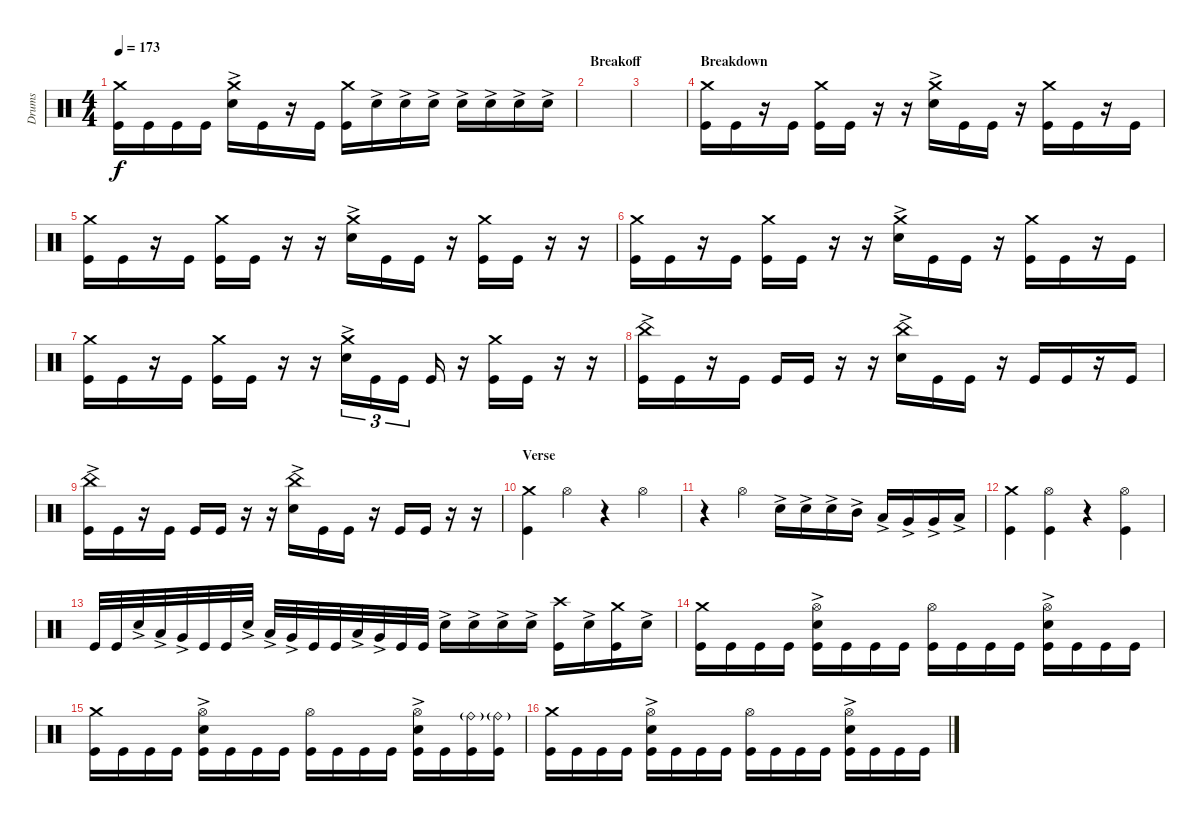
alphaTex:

\track ("Drums" "Drums") {instrument percussion}
\staff {score}
\articulation defaults
\ts (4 4)
\tempo 173
\clef neutral
\ks c
("Crash medium (hit)" "Kick (hit)").16{dy f} "Kick (hit)".16 "Kick (hit)".16 "Kick (hit)".16 ("Crash medium (hit)" "Snare (hit) 2"{ac}).16 "Kick (hit)".16 r.16 "Kick (hit)".16 ("Kick (hit)" "Crash medium (hit)").16 "Snare (hit) 2"{ac}.16 "Snare (hit) 2"{ac}.16 "Snare (hit) 2"{ac}.16 "Snare (hit) 2"{ac}.16 "Snare (hit) 2"{ac}.16 "Snare (hit) 2"{ac}.16 "Snare (hit) 2"{ac}.16 |
\section ("" "Breakoff")
|
|
\section ("" "Breakdown")
("Crash medium (hit)" "Kick (hit)").16 "Kick (hit)".16 r.16 "Kick (hit)".16 ("Crash medium (hit)" "Kick (hit)").16 "Kick (hit)".16 r.16 r.16 ("Crash medium (hit)" "Snare (hit) 2"{ac}).16 "Kick (hit)".16 "Kick (hit)".16 r.16 ("Crash medium (hit)" "Kick (hit)").16 "Kick (hit)".16 r.16 "Kick (hit)".16 |
("Crash medium (hit)" "Kick (hit)").16 "Kick (hit)".16 r.16 "Kick (hit)".16 ("Crash medium (hit)" "Kick (hit)").16 "Kick (hit)".16 r.16 r.16 ("Crash medium (hit)" "Snare (hit) 2"{ac}).16 "Kick (hit)".16 "Kick (hit)".16 r.16 ("Crash medium (hit)" "Kick (hit)").16 "Kick (hit)".16 r.16 r.16 |
("Crash medium (hit)" "Kick (hit)").16 "Kick (hit)".16 r.16 "Kick (hit)".16 ("Crash medium (hit)" "Kick (hit)").16 "Kick (hit)".16 r.16 r.16 ("Crash medium (hit)" "Snare (hit) 2"{ac}).16 "Kick (hit)".16 "Kick (hit)".16 r.16 ("Crash medium (hit)" "Kick (hit)").16 "Kick (hit)".16 r.16 "Kick (hit)".16 |
("Crash medium (hit)" "Kick (hit)").16 "Kick (hit)".16 r.16 "Kick (hit)".16 ("Crash medium (hit)" "Kick (hit)").16 "Kick (hit)".16 r.16 r.16 ("Crash medium (hit)" "Snare (hit) 2"{ac}).16{tu (3 2)} "Kick (hit)".16{tu (3 2)} "Kick (hit)".16{tu (3 2)} "Kick (hit)".16 r.16 ("Kick (hit)" "Crash medium (hit)").16 "Kick (hit)".16 r.16 r.16 |
("Kick (hit)" "China (hit)"{ac}).16 "Kick (hit)".16 r.16 "Kick (hit)".16 "Kick (hit)".16 "Kick (hit)".16 r.16 r.16 ("Snare (hit) 2"{ac} "China (hit)"{ac}).16 "Kick (hit)".16 "Kick (hit)".16 r.16 "Kick (hit)".16 "Kick (hit)".16 r.16 "Kick (hit)".16 |
("Kick (hit)" "China (hit)"{ac}).16 "Kick (hit)".16 r.16 "Kick (hit)".16 "Kick (hit)".16 "Kick (hit)".16 r.16 r.16 ("Snare (hit) 2"{ac} "China (hit)"{ac}).16 "Kick (hit)".16 "Kick (hit)".16 r.16 "Kick (hit)".16 "Kick (hit)".16 r.16 r.16 |
\section ("" "Verse")
("Kick (hit)" "Crash medium (hit)").4 "Hi-Hat (open)".4 r.4 "Hi-Hat (open)".4 |
r.4 "Hi-Hat (open)".4 "Snare (hit) 2"{ac}.16 "Snare (hit) 2"{ac}.16 "Snare (hit) 2"{ac}.16 "Mid Tom (hit)"{ac}.16 "Low Tom (hit)"{ac}.16 "Very Low Tom (hit)"{ac}.16 "Very Low Tom (hit)"{ac}.16 "Low Floor Tom (hit)"{ac}.16 |
("Kick (hit)" "Crash medium (hit)").4 ("Hi-Hat (open)" "Kick (hit)").4 r.4 ("Hi-Hat (open)" "Kick (hit)").4 |
"Kick (hit)".32 "Kick (hit)".32 "Snare (hit) 2"{ac}.32 "Low Tom (hit)"{ac}.32 "Very Low Tom (hit)"{ac}.32 "Kick (hit)".32 "Kick (hit)".32 "Snare (hit) 2"{ac}.32 "Low Tom (hit)"{ac}.32 "Very Low Tom (hit)"{ac}.32 "Kick (hit)".32 "Kick (hit)".32 "Low Tom (hit)"{ac}.32 "Very Low Tom (hit)"{ac}.32 "Kick (hit)".32 "Kick (hit)".32 "Snare (hit) 2"{ac}.16 "Snare (hit) 2"{ac}.16 "Snare (hit) 2"{ac}.16 "Snare (hit) 2"{ac}.16 ("Kick (hit)" "Crash high (hit)").16 "Snare (hit) 2"{ac}.16 ("Kick (hit)" "Crash medium (hit)").16 "Snare (hit) 2"{ac}.16 |
("Kick (hit)" "Crash medium (hit)").16 "Kick (hit)".16 "Kick (hit)".16 "Kick (hit)".16 ("Kick (hit)" "Hi-Hat (open)" "Snare (hit) 2"{ac}).16 "Kick (hit)".16 "Kick (hit)".16 "Kick (hit)".16 ("Kick (hit)" "Hi-Hat (open)").16 "Kick (hit)".16 "Kick (hit)".16 "Kick (hit)".16 ("Kick (hit)" "Hi-Hat (open)" "Snare (hit) 2"{ac}).16 "Kick (hit)".16 "Kick (hit)".16 "Kick (hit)".16 |
("Kick (hit)" "Crash medium (hit)").16 "Kick (hit)".16 "Kick (hit)".16 "Kick (hit)".16 ("Kick (hit)" "Hi-Hat (open)" "Snare (hit) 2"{ac}).16 "Kick (hit)".16 "Kick (hit)".16 "Kick (hit)".16 ("Kick (hit)" "Hi-Hat (open)").16 "Kick (hit)".16 "Kick (hit)".16 "Kick (hit)".16 ("Kick (hit)" "Hi-Hat (open)" "Snare (hit) 2"{ac}).16 "Kick (hit)".16 ("Kick (hit)" "Ride (bell)"{g}).16 ("Kick (hit)" "Ride (bell)"{g}).16 |
("Kick (hit)" "Crash medium (hit)").16 "Kick (hit)".16 "Kick (hit)".16 "Kick (hit)".16 ("Kick (hit)" "Hi-Hat (open)" "Snare (hit) 2"{ac}).16 "Kick (hit)".16 "Kick (hit)".16 "Kick (hit)".16 ("Kick (hit)" "Hi-Hat (open)").16 "Kick (hit)".16 "Kick (hit)".16 "Kick (hit)".16 ("Kick (hit)" "Hi-Hat (open)" "Snare (hit) 2"{ac}).16 "Kick (hit)".16 "Kick (hit)".16 "Kick (hit)".16
